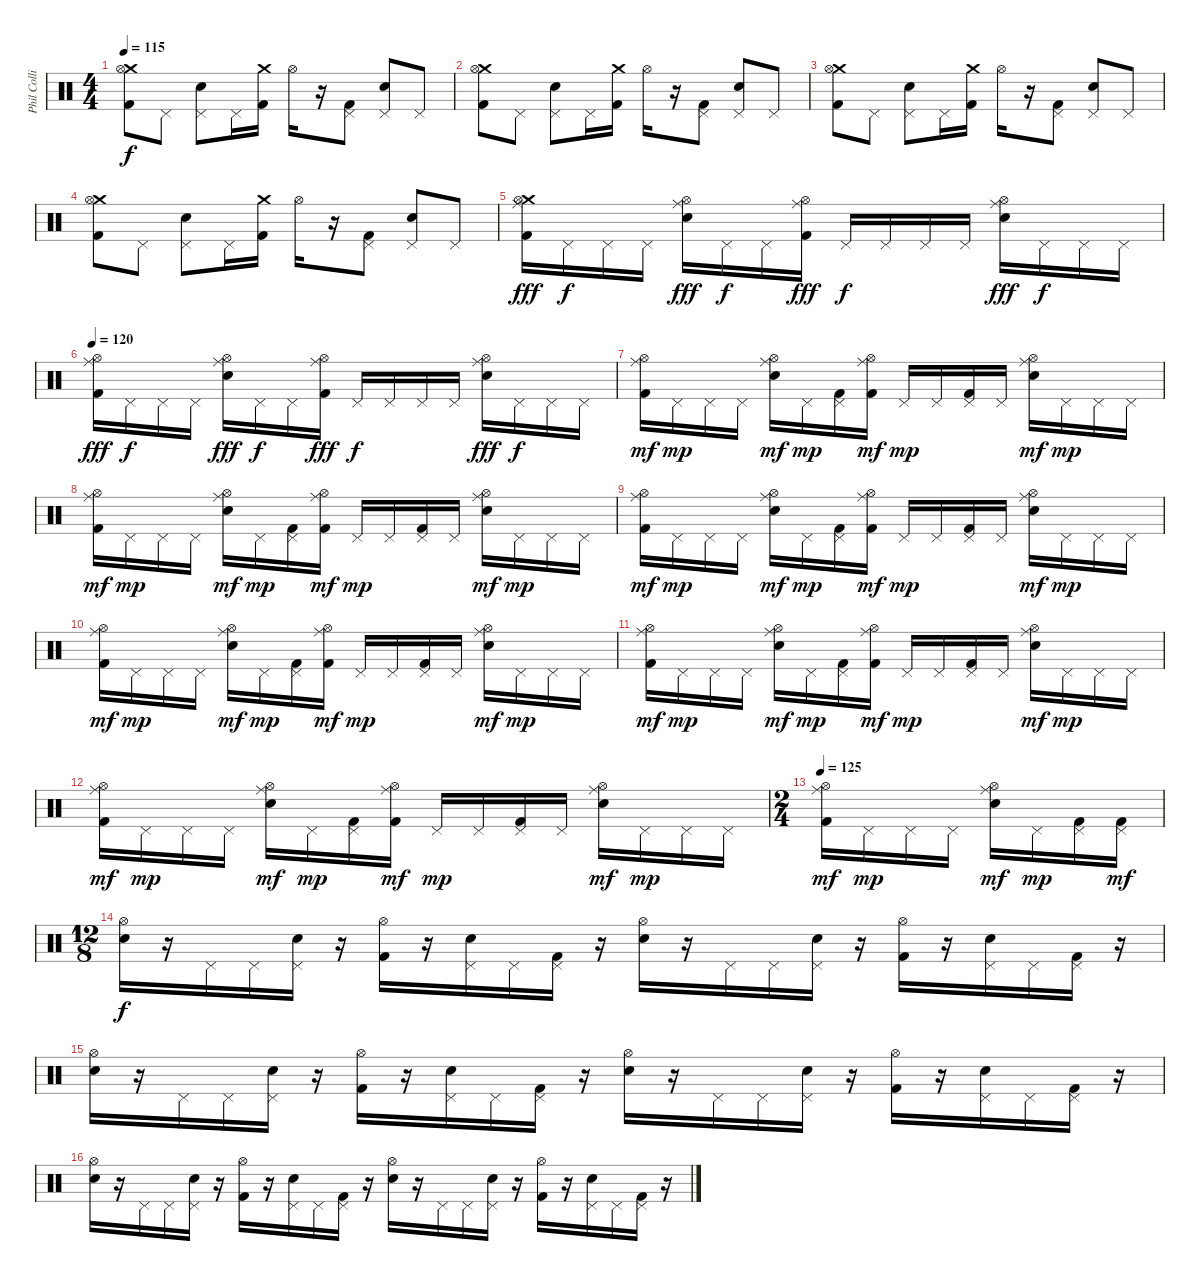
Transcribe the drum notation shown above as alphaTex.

\track ("Phil Collins (drums)" "Phil Colli") {instrument percussion}
\staff {score}
\articulation defaults
\ts (4 4)
\tempo 115
\clef neutral
\ks c
("Crash medium (hit)" "Hi-Hat (open)" "Kick (hit) 2").8{dy f} "Pedal Hi-Hat (hit)".8 ("Pedal Hi-Hat (hit)" "Electric Snare (hit)").8 "Pedal Hi-Hat (hit)".16 ("Crash medium (hit)" "Kick (hit) 2").16 "Hi-Hat (open)".16 r.16 ("Pedal Hi-Hat (hit)" "Kick (hit) 2").8 ("Pedal Hi-Hat (hit)" "Electric Snare (hit)").8 "Pedal Hi-Hat (hit)".8 |
("Crash medium (hit)" "Hi-Hat (open)" "Kick (hit) 2").8 "Pedal Hi-Hat (hit)".8 ("Pedal Hi-Hat (hit)" "Electric Snare (hit)").8 "Pedal Hi-Hat (hit)".16 ("Crash medium (hit)" "Kick (hit) 2").16 "Hi-Hat (open)".16 r.16 ("Pedal Hi-Hat (hit)" "Kick (hit) 2").8 ("Pedal Hi-Hat (hit)" "Electric Snare (hit)").8 "Pedal Hi-Hat (hit)".8 |
("Crash medium (hit)" "Hi-Hat (open)" "Kick (hit) 2").8 "Pedal Hi-Hat (hit)".8 ("Pedal Hi-Hat (hit)" "Electric Snare (hit)").8 "Pedal Hi-Hat (hit)".16 ("Crash medium (hit)" "Kick (hit) 2").16 "Hi-Hat (open)".16 r.16 ("Pedal Hi-Hat (hit)" "Kick (hit) 2").8 ("Pedal Hi-Hat (hit)" "Electric Snare (hit)").8 "Pedal Hi-Hat (hit)".8 |
("Crash medium (hit)" "Hi-Hat (open)" "Kick (hit) 2").8 "Pedal Hi-Hat (hit)".8 ("Pedal Hi-Hat (hit)" "Electric Snare (hit)").8 "Pedal Hi-Hat (hit)".16 ("Crash medium (hit)" "Kick (hit) 2").16 "Hi-Hat (open)".16 r.16 ("Pedal Hi-Hat (hit)" "Kick (hit) 2").8 ("Pedal Hi-Hat (hit)" "Electric Snare (hit)").8 "Pedal Hi-Hat (hit)".8 |
("Crash medium (hit)" "Ride (middle)" "Hi-Hat (open)" "Kick (hit) 2").16{dy fff} "Pedal Hi-Hat (hit)".16{dy f} "Pedal Hi-Hat (hit)".16 "Pedal Hi-Hat (hit)".16 ("Ride (middle)" "Hi-Hat (open)" "Electric Snare (hit)").16{dy fff} "Pedal Hi-Hat (hit)".16{dy f} "Pedal Hi-Hat (hit)".16 ("Ride (middle)" "Hi-Hat (open)" "Kick (hit) 2").16{dy fff} "Pedal Hi-Hat (hit)".16{dy f} "Pedal Hi-Hat (hit)".16 "Pedal Hi-Hat (hit)".16 "Pedal Hi-Hat (hit)".16 ("Ride (middle)" "Hi-Hat (open)" "Electric Snare (hit)").16{dy fff} "Pedal Hi-Hat (hit)".16{dy f} "Pedal Hi-Hat (hit)".16 "Pedal Hi-Hat (hit)".16 |
\tempo 120
("Ride (middle)" "Hi-Hat (open)" "Kick (hit) 2").16{dy fff} "Pedal Hi-Hat (hit)".16{dy f} "Pedal Hi-Hat (hit)".16 "Pedal Hi-Hat (hit)".16 ("Ride (middle)" "Hi-Hat (open)" "Electric Snare (hit)").16{dy fff} "Pedal Hi-Hat (hit)".16{dy f} "Pedal Hi-Hat (hit)".16 ("Ride (middle)" "Hi-Hat (open)" "Kick (hit) 2").16{dy fff} "Pedal Hi-Hat (hit)".16{dy f} "Pedal Hi-Hat (hit)".16 "Pedal Hi-Hat (hit)".16 "Pedal Hi-Hat (hit)".16 ("Ride (middle)" "Hi-Hat (open)" "Electric Snare (hit)").16{dy fff} "Pedal Hi-Hat (hit)".16{dy f} "Pedal Hi-Hat (hit)".16 "Pedal Hi-Hat (hit)".16 |
("Ride (middle)" "Hi-Hat (open)" "Kick (hit) 2").16{dy mf} "Pedal Hi-Hat (hit)".16{dy mp} "Pedal Hi-Hat (hit)".16 "Pedal Hi-Hat (hit)".16 ("Ride (middle)" "Hi-Hat (open)" "Electric Snare (hit)").16{dy mf} "Pedal Hi-Hat (hit)".16{dy mp} ("Pedal Hi-Hat (hit)" "Kick (hit) 2").16 ("Ride (middle)" "Hi-Hat (open)" "Kick (hit) 2").16{dy mf} "Pedal Hi-Hat (hit)".16{dy mp} "Pedal Hi-Hat (hit)".16 ("Pedal Hi-Hat (hit)" "Kick (hit) 2").16 "Pedal Hi-Hat (hit)".16 ("Ride (middle)" "Hi-Hat (open)" "Electric Snare (hit)").16{dy mf} "Pedal Hi-Hat (hit)".16{dy mp} "Pedal Hi-Hat (hit)".16 "Pedal Hi-Hat (hit)".16 |
("Ride (middle)" "Hi-Hat (open)" "Kick (hit) 2").16{dy mf} "Pedal Hi-Hat (hit)".16{dy mp} "Pedal Hi-Hat (hit)".16 "Pedal Hi-Hat (hit)".16 ("Ride (middle)" "Hi-Hat (open)" "Electric Snare (hit)").16{dy mf} "Pedal Hi-Hat (hit)".16{dy mp} ("Pedal Hi-Hat (hit)" "Kick (hit) 2").16 ("Ride (middle)" "Hi-Hat (open)" "Kick (hit) 2").16{dy mf} "Pedal Hi-Hat (hit)".16{dy mp} "Pedal Hi-Hat (hit)".16 ("Pedal Hi-Hat (hit)" "Kick (hit) 2").16 "Pedal Hi-Hat (hit)".16 ("Ride (middle)" "Hi-Hat (open)" "Electric Snare (hit)").16{dy mf} "Pedal Hi-Hat (hit)".16{dy mp} "Pedal Hi-Hat (hit)".16 "Pedal Hi-Hat (hit)".16 |
("Ride (middle)" "Hi-Hat (open)" "Kick (hit) 2").16{dy mf} "Pedal Hi-Hat (hit)".16{dy mp} "Pedal Hi-Hat (hit)".16 "Pedal Hi-Hat (hit)".16 ("Ride (middle)" "Hi-Hat (open)" "Electric Snare (hit)").16{dy mf} "Pedal Hi-Hat (hit)".16{dy mp} ("Pedal Hi-Hat (hit)" "Kick (hit) 2").16 ("Ride (middle)" "Hi-Hat (open)" "Kick (hit) 2").16{dy mf} "Pedal Hi-Hat (hit)".16{dy mp} "Pedal Hi-Hat (hit)".16 ("Pedal Hi-Hat (hit)" "Kick (hit) 2").16 "Pedal Hi-Hat (hit)".16 ("Ride (middle)" "Hi-Hat (open)" "Electric Snare (hit)").16{dy mf} "Pedal Hi-Hat (hit)".16{dy mp} "Pedal Hi-Hat (hit)".16 "Pedal Hi-Hat (hit)".16 |
("Ride (middle)" "Hi-Hat (open)" "Kick (hit) 2").16{dy mf} "Pedal Hi-Hat (hit)".16{dy mp} "Pedal Hi-Hat (hit)".16 "Pedal Hi-Hat (hit)".16 ("Ride (middle)" "Hi-Hat (open)" "Electric Snare (hit)").16{dy mf} "Pedal Hi-Hat (hit)".16{dy mp} ("Pedal Hi-Hat (hit)" "Kick (hit) 2").16 ("Ride (middle)" "Hi-Hat (open)" "Kick (hit) 2").16{dy mf} "Pedal Hi-Hat (hit)".16{dy mp} "Pedal Hi-Hat (hit)".16 ("Pedal Hi-Hat (hit)" "Kick (hit) 2").16 "Pedal Hi-Hat (hit)".16 ("Ride (middle)" "Hi-Hat (open)" "Electric Snare (hit)").16{dy mf} "Pedal Hi-Hat (hit)".16{dy mp} "Pedal Hi-Hat (hit)".16 "Pedal Hi-Hat (hit)".16 |
("Ride (middle)" "Hi-Hat (open)" "Kick (hit) 2").16{dy mf} "Pedal Hi-Hat (hit)".16{dy mp} "Pedal Hi-Hat (hit)".16 "Pedal Hi-Hat (hit)".16 ("Ride (middle)" "Hi-Hat (open)" "Electric Snare (hit)").16{dy mf} "Pedal Hi-Hat (hit)".16{dy mp} ("Pedal Hi-Hat (hit)" "Kick (hit) 2").16 ("Ride (middle)" "Hi-Hat (open)" "Kick (hit) 2").16{dy mf} "Pedal Hi-Hat (hit)".16{dy mp} "Pedal Hi-Hat (hit)".16 ("Pedal Hi-Hat (hit)" "Kick (hit) 2").16 "Pedal Hi-Hat (hit)".16 ("Ride (middle)" "Hi-Hat (open)" "Electric Snare (hit)").16{dy mf} "Pedal Hi-Hat (hit)".16{dy mp} "Pedal Hi-Hat (hit)".16 "Pedal Hi-Hat (hit)".16 |
("Ride (middle)" "Hi-Hat (open)" "Kick (hit) 2").16{dy mf} "Pedal Hi-Hat (hit)".16{dy mp} "Pedal Hi-Hat (hit)".16 "Pedal Hi-Hat (hit)".16 ("Ride (middle)" "Hi-Hat (open)" "Electric Snare (hit)").16{dy mf} "Pedal Hi-Hat (hit)".16{dy mp} ("Pedal Hi-Hat (hit)" "Kick (hit) 2").16 ("Ride (middle)" "Hi-Hat (open)" "Kick (hit) 2").16{dy mf} "Pedal Hi-Hat (hit)".16{dy mp} "Pedal Hi-Hat (hit)".16 ("Pedal Hi-Hat (hit)" "Kick (hit) 2").16 "Pedal Hi-Hat (hit)".16 ("Ride (middle)" "Hi-Hat (open)" "Electric Snare (hit)").16{dy mf} "Pedal Hi-Hat (hit)".16{dy mp} "Pedal Hi-Hat (hit)".16 "Pedal Hi-Hat (hit)".16 |
\ts (2 4)
\tempo 125
("Ride (middle)" "Hi-Hat (open)" "Kick (hit) 2").16{dy mf} "Pedal Hi-Hat (hit)".16{dy mp} "Pedal Hi-Hat (hit)".16 "Pedal Hi-Hat (hit)".16 ("Ride (middle)" "Hi-Hat (open)" "Electric Snare (hit)").16{dy mf} "Pedal Hi-Hat (hit)".16{dy mp} ("Pedal Hi-Hat (hit)" "Kick (hit) 2").16 ("Pedal Hi-Hat (hit)" "Kick (hit) 2").16{dy mf} |
\ts (12 8)
("Hi-Hat (open)" "Electric Snare (hit)").16{dy f} r.16 "Pedal Hi-Hat (hit)".16 "Pedal Hi-Hat (hit)".16 ("Pedal Hi-Hat (hit)" "Electric Snare (hit)").16 r.16 ("Hi-Hat (open)" "Kick (hit) 2").16 r.16 ("Pedal Hi-Hat (hit)" "Electric Snare (hit)").16 "Pedal Hi-Hat (hit)".16 ("Pedal Hi-Hat (hit)" "Kick (hit) 2").16 r.16 ("Hi-Hat (open)" "Electric Snare (hit)").16 r.16 "Pedal Hi-Hat (hit)".16 "Pedal Hi-Hat (hit)".16 ("Pedal Hi-Hat (hit)" "Electric Snare (hit)").16 r.16 ("Hi-Hat (open)" "Kick (hit) 2").16 r.16 ("Pedal Hi-Hat (hit)" "Electric Snare (hit)").16 "Pedal Hi-Hat (hit)".16 ("Pedal Hi-Hat (hit)" "Kick (hit) 2").16 r.16 |
("Hi-Hat (open)" "Electric Snare (hit)").16 r.16 "Pedal Hi-Hat (hit)".16 "Pedal Hi-Hat (hit)".16 ("Pedal Hi-Hat (hit)" "Electric Snare (hit)").16 r.16 ("Hi-Hat (open)" "Kick (hit) 2").16 r.16 ("Pedal Hi-Hat (hit)" "Electric Snare (hit)").16 "Pedal Hi-Hat (hit)".16 ("Pedal Hi-Hat (hit)" "Kick (hit) 2").16 r.16 ("Hi-Hat (open)" "Electric Snare (hit)").16 r.16 "Pedal Hi-Hat (hit)".16 "Pedal Hi-Hat (hit)".16 ("Pedal Hi-Hat (hit)" "Electric Snare (hit)").16 r.16 ("Hi-Hat (open)" "Kick (hit) 2").16 r.16 ("Pedal Hi-Hat (hit)" "Electric Snare (hit)").16 "Pedal Hi-Hat (hit)".16 ("Pedal Hi-Hat (hit)" "Kick (hit) 2").16 r.16 |
("Hi-Hat (open)" "Electric Snare (hit)").16 r.16 "Pedal Hi-Hat (hit)".16 "Pedal Hi-Hat (hit)".16 ("Pedal Hi-Hat (hit)" "Electric Snare (hit)").16 r.16 ("Hi-Hat (open)" "Kick (hit) 2").16 r.16 ("Pedal Hi-Hat (hit)" "Electric Snare (hit)").16 "Pedal Hi-Hat (hit)".16 ("Pedal Hi-Hat (hit)" "Kick (hit) 2").16 r.16 ("Hi-Hat (open)" "Electric Snare (hit)").16 r.16 "Pedal Hi-Hat (hit)".16 "Pedal Hi-Hat (hit)".16 ("Pedal Hi-Hat (hit)" "Electric Snare (hit)").16 r.16 ("Hi-Hat (open)" "Kick (hit) 2").16 r.16 ("Pedal Hi-Hat (hit)" "Electric Snare (hit)").16 "Pedal Hi-Hat (hit)".16 ("Pedal Hi-Hat (hit)" "Kick (hit) 2").16 r.16
